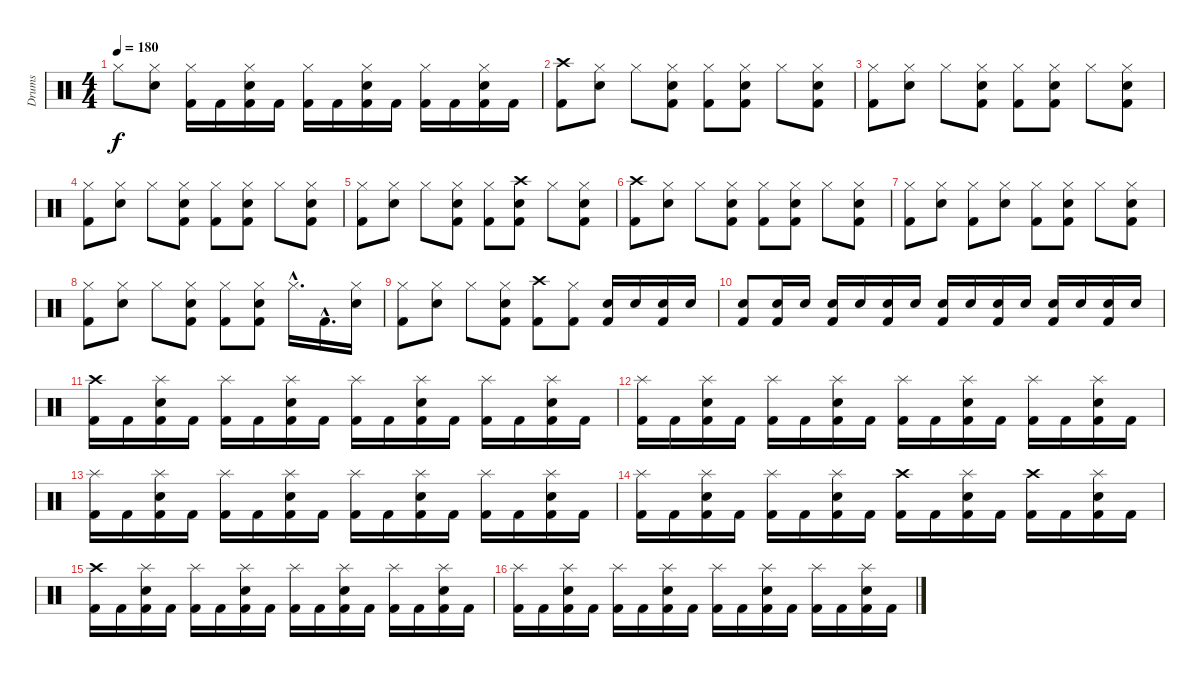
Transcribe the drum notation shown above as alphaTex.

\track ("Drums" "Drums") {instrument percussion}
\staff {score}
\articulation defaults
\ts (4 4)
\tempo 180
\clef neutral
\ks c "Hi-Hat (closed)".8{dy f}
("Hi-Hat (closed)" "Snare (hit) 2").8 ("Hi-Hat (closed)" "Kick (hit) 2").16 "Kick (hit) 2".16 ("Hi-Hat (closed)" "Snare (hit) 2" "Kick (hit) 2").16 "Kick (hit) 2".16 ("Hi-Hat (closed)" "Kick (hit) 2").16 "Kick (hit) 2".16 ("Hi-Hat (closed)" "Snare (hit) 2" "Kick (hit) 2").16 "Kick (hit) 2".16 ("Hi-Hat (closed)" "Kick (hit) 2").16 "Kick (hit) 2".16 ("Hi-Hat (closed)" "Snare (hit) 2" "Kick (hit) 2").16 "Kick (hit) 2".16 |
("Crash high (hit)" "Kick (hit) 2").8 ("Hi-Hat (closed)" "Snare (hit) 2").8 "Hi-Hat (closed)".8 ("Hi-Hat (closed)" "Snare (hit) 2" "Kick (hit) 2").8 ("Hi-Hat (closed)" "Kick (hit) 2").8 ("Hi-Hat (closed)" "Snare (hit) 2" "Kick (hit) 2").8 "Hi-Hat (closed)".8 ("Hi-Hat (closed)" "Snare (hit) 2" "Kick (hit) 2").8 |
("Hi-Hat (closed)" "Kick (hit) 2").8 ("Hi-Hat (closed)" "Snare (hit) 2").8 "Hi-Hat (closed)".8 ("Hi-Hat (closed)" "Snare (hit) 2" "Kick (hit) 2").8 ("Hi-Hat (closed)" "Kick (hit) 2").8 ("Hi-Hat (closed)" "Snare (hit) 2" "Kick (hit) 2").8 "Hi-Hat (closed)".8 ("Hi-Hat (closed)" "Snare (hit) 2" "Kick (hit) 2").8 |
("Hi-Hat (closed)" "Kick (hit) 2").8 ("Hi-Hat (closed)" "Snare (hit) 2").8 "Hi-Hat (closed)".8 ("Hi-Hat (closed)" "Snare (hit) 2" "Kick (hit) 2").8 ("Hi-Hat (closed)" "Kick (hit) 2").8 ("Hi-Hat (closed)" "Snare (hit) 2" "Kick (hit) 2").8 "Hi-Hat (closed)".8 ("Hi-Hat (closed)" "Snare (hit) 2" "Kick (hit) 2").8 |
("Hi-Hat (closed)" "Kick (hit) 2").8 ("Hi-Hat (closed)" "Snare (hit) 2").8 "Hi-Hat (closed)".8 ("Hi-Hat (closed)" "Snare (hit) 2" "Kick (hit) 2").8 ("Hi-Hat (closed)" "Kick (hit) 2").8 ("Crash high (hit)" "Snare (hit) 2" "Kick (hit) 2").8 "Hi-Hat (closed)".8 ("Hi-Hat (closed)" "Snare (hit) 2" "Kick (hit) 2").8 |
("Crash high (hit)" "Kick (hit) 2").8 ("Hi-Hat (closed)" "Snare (hit) 2").8 "Hi-Hat (closed)".8 ("Hi-Hat (closed)" "Snare (hit) 2" "Kick (hit) 2").8 ("Hi-Hat (closed)" "Kick (hit) 2").8 ("Hi-Hat (closed)" "Snare (hit) 2" "Kick (hit) 2").8 "Hi-Hat (closed)".8 ("Hi-Hat (closed)" "Snare (hit) 2" "Kick (hit) 2").8 |
("Hi-Hat (closed)" "Kick (hit) 2").8 ("Hi-Hat (closed)" "Snare (hit) 2").8 ("Hi-Hat (closed)" "Kick (hit) 2").8 ("Hi-Hat (closed)" "Snare (hit) 2").8 ("Hi-Hat (closed)" "Kick (hit) 2").8 ("Hi-Hat (closed)" "Snare (hit) 2" "Kick (hit) 2").8 "Hi-Hat (closed)".8 ("Hi-Hat (closed)" "Snare (hit) 2" "Kick (hit) 2").8 |
("Hi-Hat (closed)" "Kick (hit) 2").8 ("Hi-Hat (closed)" "Snare (hit) 2").8 "Hi-Hat (closed)".8 ("Hi-Hat (closed)" "Snare (hit) 2" "Kick (hit) 2").8 ("Hi-Hat (closed)" "Kick (hit) 2").8 ("Hi-Hat (closed)" "Snare (hit) 2" "Kick (hit) 2").8 "Hi-Hat (closed)"{hac}.16{d} "Kick (hit) 2"{hac}.16{d} ("Hi-Hat (closed)" "Snare (hit) 2").16 |
("Hi-Hat (closed)" "Kick (hit) 2").8 ("Hi-Hat (closed)" "Snare (hit) 2").8 "Hi-Hat (closed)".8 ("Hi-Hat (closed)" "Snare (hit) 2" "Kick (hit) 2").8 ("Crash high (hit)" "Kick (hit) 2").8 ("Hi-Hat (closed)" "Kick (hit) 2").8 ("Snare (hit) 2" "Kick (hit) 2").16 "Snare (hit) 2".16 ("Snare (hit) 2" "Kick (hit) 2").16 "Snare (hit) 2".16 |
("Snare (hit) 2" "Kick (hit) 2").8 ("Snare (hit) 2" "Kick (hit) 2").16 "Snare (hit) 2".16 ("Snare (hit) 2" "Kick (hit) 2").16 "Snare (hit) 2".16 ("Snare (hit) 2" "Kick (hit) 2").16 "Snare (hit) 2".16 ("Snare (hit) 2" "Kick (hit) 2").16 "Snare (hit) 2".16 ("Snare (hit) 2" "Kick (hit) 2").16 "Snare (hit) 2".16 ("Snare (hit) 2" "Kick (hit) 2").16 "Snare (hit) 2".16 ("Snare (hit) 2" "Kick (hit) 2").16 "Snare (hit) 2".16 |
("Crash high (hit)" "Kick (hit) 2").16 "Kick (hit) 2".16 ("Splash (hit)" "Snare (hit) 2" "Kick (hit) 2").16 "Kick (hit) 2".16 ("Splash (hit)" "Kick (hit) 2").16 "Kick (hit) 2".16 ("Splash (hit)" "Snare (hit) 2" "Kick (hit) 2").16 "Kick (hit) 2".16 ("Splash (hit)" "Kick (hit) 2").16 "Kick (hit) 2".16 ("Splash (hit)" "Snare (hit) 2" "Kick (hit) 2").16 "Kick (hit) 2".16 ("Splash (hit)" "Kick (hit) 2").16 "Kick (hit) 2".16 ("Splash (hit)" "Snare (hit) 2" "Kick (hit) 2").16 "Kick (hit) 2".16 |
("Splash (hit)" "Kick (hit) 2").16 "Kick (hit) 2".16 ("Splash (hit)" "Snare (hit) 2" "Kick (hit) 2").16 "Kick (hit) 2".16 ("Splash (hit)" "Kick (hit) 2").16 "Kick (hit) 2".16 ("Splash (hit)" "Snare (hit) 2" "Kick (hit) 2").16 "Kick (hit) 2".16 ("Splash (hit)" "Kick (hit) 2").16 "Kick (hit) 2".16 ("Splash (hit)" "Snare (hit) 2" "Kick (hit) 2").16 "Kick (hit) 2".16 ("Splash (hit)" "Kick (hit) 2").16 "Kick (hit) 2".16 ("Splash (hit)" "Snare (hit) 2" "Kick (hit) 2").16 "Kick (hit) 2".16 |
("Splash (hit)" "Kick (hit) 2").16 "Kick (hit) 2".16 ("Splash (hit)" "Snare (hit) 2" "Kick (hit) 2").16 "Kick (hit) 2".16 ("Splash (hit)" "Kick (hit) 2").16 "Kick (hit) 2".16 ("Splash (hit)" "Snare (hit) 2" "Kick (hit) 2").16 "Kick (hit) 2".16 ("Splash (hit)" "Kick (hit) 2").16 "Kick (hit) 2".16 ("Splash (hit)" "Snare (hit) 2" "Kick (hit) 2").16 "Kick (hit) 2".16 ("Splash (hit)" "Kick (hit) 2").16 "Kick (hit) 2".16 ("Splash (hit)" "Snare (hit) 2" "Kick (hit) 2").16 "Kick (hit) 2".16 |
("Splash (hit)" "Kick (hit) 2").16 "Kick (hit) 2".16 ("Splash (hit)" "Snare (hit) 2" "Kick (hit) 2").16 "Kick (hit) 2".16 ("Splash (hit)" "Kick (hit) 2").16 "Kick (hit) 2".16 ("Splash (hit)" "Snare (hit) 2" "Kick (hit) 2").16 "Kick (hit) 2".16 ("Crash high (hit)" "Kick (hit) 2").16 "Kick (hit) 2".16 ("Splash (hit)" "Snare (hit) 2" "Kick (hit) 2").16 "Kick (hit) 2".16 ("Crash high (hit)" "Kick (hit) 2").16 "Kick (hit) 2".16 ("Splash (hit)" "Snare (hit) 2" "Kick (hit) 2").16 "Kick (hit) 2".16 |
("Crash high (hit)" "Kick (hit) 2").16 "Kick (hit) 2".16 ("Splash (hit)" "Snare (hit) 2" "Kick (hit) 2").16 "Kick (hit) 2".16 ("Splash (hit)" "Kick (hit) 2").16 "Kick (hit) 2".16 ("Splash (hit)" "Snare (hit) 2" "Kick (hit) 2").16 "Kick (hit) 2".16 ("Splash (hit)" "Kick (hit) 2").16 "Kick (hit) 2".16 ("Splash (hit)" "Snare (hit) 2" "Kick (hit) 2").16 "Kick (hit) 2".16 ("Splash (hit)" "Kick (hit) 2").16 "Kick (hit) 2".16 ("Splash (hit)" "Snare (hit) 2" "Kick (hit) 2").16 "Kick (hit) 2".16 |
("Splash (hit)" "Kick (hit) 2").16 "Kick (hit) 2".16 ("Splash (hit)" "Snare (hit) 2" "Kick (hit) 2").16 "Kick (hit) 2".16 ("Splash (hit)" "Kick (hit) 2").16 "Kick (hit) 2".16 ("Splash (hit)" "Snare (hit) 2" "Kick (hit) 2").16 "Kick (hit) 2".16 ("Splash (hit)" "Kick (hit) 2").16 "Kick (hit) 2".16 ("Splash (hit)" "Snare (hit) 2" "Kick (hit) 2").16 "Kick (hit) 2".16 ("Splash (hit)" "Kick (hit) 2").16 "Kick (hit) 2".16 ("Splash (hit)" "Snare (hit) 2" "Kick (hit) 2").16 "Kick (hit) 2".16
